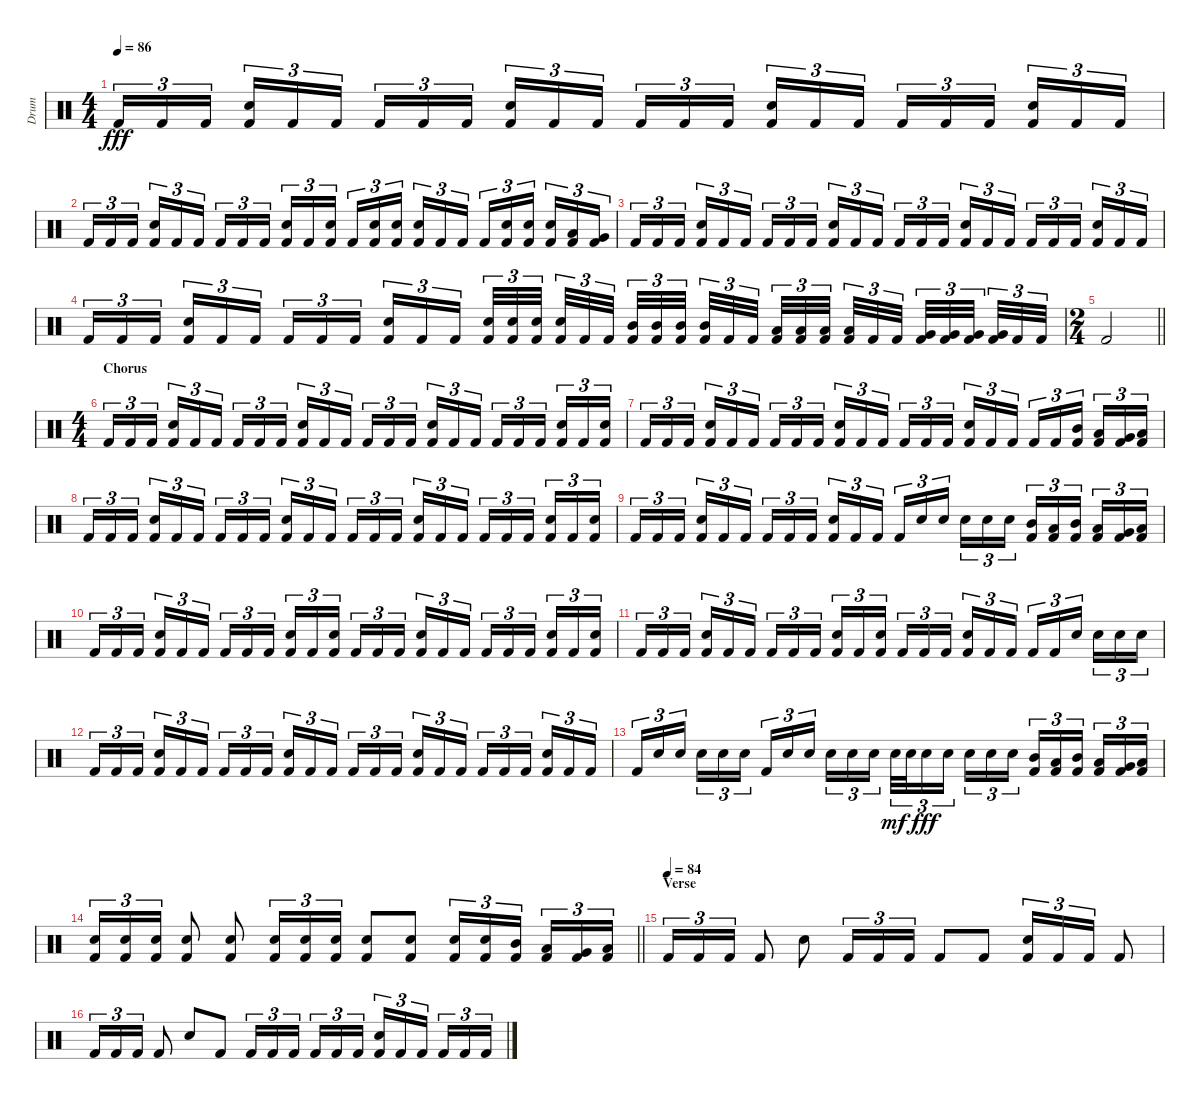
\track ("Drum" "Drum") {instrument percussion}
\staff {score}
\articulation defaults
\ts (4 4)
\tempo 86
\clef neutral
\ks c "Kick (hit) 2".16{tu (3 2) dy fff} "Kick (hit) 2".16{tu (3 2)} "Kick (hit) 2".16{tu (3 2) beam splitsecondary}
("Snare (hit) 2" "Kick (hit) 2").16{tu (3 2)} "Kick (hit) 2".16{tu (3 2)} "Kick (hit) 2".16{tu (3 2)} "Kick (hit) 2".16{tu (3 2)} "Kick (hit) 2".16{tu (3 2)} "Kick (hit) 2".16{tu (3 2) beam splitsecondary} ("Snare (hit) 2" "Kick (hit) 2").16{tu (3 2)} "Kick (hit) 2".16{tu (3 2)} "Kick (hit) 2".16{tu (3 2)} "Kick (hit) 2".16{tu (3 2)} "Kick (hit) 2".16{tu (3 2)} "Kick (hit) 2".16{tu (3 2) beam splitsecondary} ("Snare (hit) 2" "Kick (hit) 2").16{tu (3 2)} "Kick (hit) 2".16{tu (3 2)} "Kick (hit) 2".16{tu (3 2)} "Kick (hit) 2".16{tu (3 2)} "Kick (hit) 2".16{tu (3 2)} "Kick (hit) 2".16{tu (3 2) beam splitsecondary} ("Snare (hit) 2" "Kick (hit) 2").16{tu (3 2)} "Kick (hit) 2".16{tu (3 2)} "Kick (hit) 2".16{tu (3 2)} |
"Kick (hit) 2".16{tu (3 2)} "Kick (hit) 2".16{tu (3 2)} "Kick (hit) 2".16{tu (3 2) beam splitsecondary} ("Snare (hit) 2" "Kick (hit) 2").16{tu (3 2)} "Kick (hit) 2".16{tu (3 2)} "Kick (hit) 2".16{tu (3 2)} "Kick (hit) 2".16{tu (3 2)} "Kick (hit) 2".16{tu (3 2)} "Kick (hit) 2".16{tu (3 2) beam splitsecondary} ("Snare (hit) 2" "Kick (hit) 2").16{tu (3 2)} "Kick (hit) 2".16{tu (3 2)} ("Snare (hit) 2" "Kick (hit) 2").16{tu (3 2)} "Kick (hit) 2".16{tu (3 2)} ("Snare (hit) 2" "Kick (hit) 2").16{tu (3 2)} ("Snare (hit) 2" "Kick (hit) 2").16{tu (3 2) beam splitsecondary} ("Snare (hit) 2" "Kick (hit) 2").16{tu (3 2)} "Kick (hit) 2".16{tu (3 2)} "Kick (hit) 2".16{tu (3 2)} "Kick (hit) 2".16{tu (3 2)} ("Snare (hit) 2" "Kick (hit) 2").16{tu (3 2)} ("Snare (hit) 2" "Kick (hit) 2").16{tu (3 2) beam splitsecondary} ("Snare (hit) 2" "Kick (hit) 2").16{tu (3 2)} ("Low Tom (hit)" "Kick (hit) 2").16{tu (3 2)} ("Very Low Tom (hit)" "Kick (hit) 2").16{tu (3 2)} |
"Kick (hit) 2".16{tu (3 2)} "Kick (hit) 2".16{tu (3 2)} "Kick (hit) 2".16{tu (3 2) beam splitsecondary} ("Snare (hit) 2" "Kick (hit) 2").16{tu (3 2)} "Kick (hit) 2".16{tu (3 2)} "Kick (hit) 2".16{tu (3 2)} "Kick (hit) 2".16{tu (3 2)} "Kick (hit) 2".16{tu (3 2)} "Kick (hit) 2".16{tu (3 2) beam splitsecondary} ("Snare (hit) 2" "Kick (hit) 2").16{tu (3 2)} "Kick (hit) 2".16{tu (3 2)} "Kick (hit) 2".16{tu (3 2)} "Kick (hit) 2".16{tu (3 2)} "Kick (hit) 2".16{tu (3 2)} "Kick (hit) 2".16{tu (3 2) beam splitsecondary} ("Snare (hit) 2" "Kick (hit) 2").16{tu (3 2)} "Kick (hit) 2".16{tu (3 2)} "Kick (hit) 2".16{tu (3 2)} "Kick (hit) 2".16{tu (3 2)} "Kick (hit) 2".16{tu (3 2)} "Kick (hit) 2".16{tu (3 2) beam splitsecondary} ("Snare (hit) 2" "Kick (hit) 2").16{tu (3 2)} "Kick (hit) 2".16{tu (3 2)} "Kick (hit) 2".16{tu (3 2)} |
"Kick (hit) 2".16{tu (3 2)} "Kick (hit) 2".16{tu (3 2)} "Kick (hit) 2".16{tu (3 2) beam splitsecondary} ("Snare (hit) 2" "Kick (hit) 2").16{tu (3 2)} "Kick (hit) 2".16{tu (3 2)} "Kick (hit) 2".16{tu (3 2)} "Kick (hit) 2".16{tu (3 2)} "Kick (hit) 2".16{tu (3 2)} "Kick (hit) 2".16{tu (3 2) beam splitsecondary} ("Snare (hit) 2" "Kick (hit) 2").16{tu (3 2)} "Kick (hit) 2".16{tu (3 2)} "Kick (hit) 2".16{tu (3 2)} ("Snare (hit) 2" "Kick (hit) 2").32{tu (3 2)} ("Snare (hit) 2" "Kick (hit) 2").32{tu (3 2)} ("Snare (hit) 2" "Kick (hit) 2").32{tu (3 2) beam splitsecondary} ("Snare (hit) 2" "Kick (hit) 2").32{tu (3 2)} "Kick (hit) 2".32{tu (3 2)} "Kick (hit) 2".32{tu (3 2) beam splitsecondary} ("Mid Tom (hit)" "Kick (hit) 2").32{tu (3 2)} ("Mid Tom (hit)" "Kick (hit) 2").32{tu (3 2)} ("Mid Tom (hit)" "Kick (hit) 2").32{tu (3 2) beam splitsecondary} ("Mid Tom (hit)" "Kick (hit) 2").32{tu (3 2)} "Kick (hit) 2".32{tu (3 2)} "Kick (hit) 2".32{tu (3 2)} ("Low Tom (hit)" "Kick (hit) 2").32{tu (3 2)} ("Low Tom (hit)" "Kick (hit) 2").32{tu (3 2)} ("Low Tom (hit)" "Kick (hit) 2").32{tu (3 2) beam splitsecondary} ("Low Tom (hit)" "Kick (hit) 2").32{tu (3 2)} "Kick (hit) 2".32{tu (3 2)} "Kick (hit) 2".32{tu (3 2) beam splitsecondary} ("Very Low Tom (hit)" "Kick (hit) 2").32{tu (3 2)} ("Very Low Tom (hit)" "Kick (hit) 2").32{tu (3 2)} ("Very Low Tom (hit)" "Kick (hit) 2").32{tu (3 2) beam splitsecondary} ("Very Low Tom (hit)" "Kick (hit) 2").32{tu (3 2)} "Kick (hit) 2".32{tu (3 2)} "Kick (hit) 2".32{tu (3 2)} |
\ts (2 4)
\barLineRight lightlight "Kick (hit) 2".2
|
\ts (4 4)
\section ("" "Chorus")
"Kick (hit) 2".16{tu (3 2)} "Kick (hit) 2".16{tu (3 2)} "Kick (hit) 2".16{tu (3 2) beam splitsecondary} ("Snare (hit) 2" "Kick (hit) 2").16{tu (3 2)} "Kick (hit) 2".16{tu (3 2)} "Kick (hit) 2".16{tu (3 2)} "Kick (hit) 2".16{tu (3 2)} "Kick (hit) 2".16{tu (3 2)} "Kick (hit) 2".16{tu (3 2) beam splitsecondary} ("Snare (hit) 2" "Kick (hit) 2").16{tu (3 2)} "Kick (hit) 2".16{tu (3 2)} "Kick (hit) 2".16{tu (3 2)} "Kick (hit) 2".16{tu (3 2)} "Kick (hit) 2".16{tu (3 2)} "Kick (hit) 2".16{tu (3 2) beam splitsecondary} ("Snare (hit) 2" "Kick (hit) 2").16{tu (3 2)} "Kick (hit) 2".16{tu (3 2)} "Kick (hit) 2".16{tu (3 2)} "Kick (hit) 2".16{tu (3 2)} "Kick (hit) 2".16{tu (3 2)} "Kick (hit) 2".16{tu (3 2) beam splitsecondary} ("Snare (hit) 2" "Kick (hit) 2").16{tu (3 2)} "Kick (hit) 2".16{tu (3 2)} ("Snare (hit) 2" "Kick (hit) 2").16{tu (3 2)} |
"Kick (hit) 2".16{tu (3 2)} "Kick (hit) 2".16{tu (3 2)} "Kick (hit) 2".16{tu (3 2) beam splitsecondary} ("Snare (hit) 2" "Kick (hit) 2").16{tu (3 2)} "Kick (hit) 2".16{tu (3 2)} "Kick (hit) 2".16{tu (3 2)} "Kick (hit) 2".16{tu (3 2)} "Kick (hit) 2".16{tu (3 2)} "Kick (hit) 2".16{tu (3 2) beam splitsecondary} ("Snare (hit) 2" "Kick (hit) 2").16{tu (3 2)} "Kick (hit) 2".16{tu (3 2)} "Kick (hit) 2".16{tu (3 2)} "Kick (hit) 2".16{tu (3 2)} "Kick (hit) 2".16{tu (3 2)} "Kick (hit) 2".16{tu (3 2) beam splitsecondary} ("Snare (hit) 2" "Kick (hit) 2").16{tu (3 2)} "Kick (hit) 2".16{tu (3 2)} "Kick (hit) 2".16{tu (3 2)} "Kick (hit) 2".16{tu (3 2)} "Kick (hit) 2".16{tu (3 2)} ("Mid Tom (hit)" "Kick (hit) 2").16{tu (3 2) beam splitsecondary} ("Low Tom (hit)" "Kick (hit) 2").16{tu (3 2)} ("Very Low Tom (hit)" "Kick (hit) 2").16{tu (3 2)} ("Low Floor Tom (hit)" "Kick (hit) 2").16{tu (3 2)} |
"Kick (hit) 2".16{tu (3 2)} "Kick (hit) 2".16{tu (3 2)} "Kick (hit) 2".16{tu (3 2) beam splitsecondary} ("Snare (hit) 2" "Kick (hit) 2").16{tu (3 2)} "Kick (hit) 2".16{tu (3 2)} "Kick (hit) 2".16{tu (3 2)} "Kick (hit) 2".16{tu (3 2)} "Kick (hit) 2".16{tu (3 2)} "Kick (hit) 2".16{tu (3 2) beam splitsecondary} ("Snare (hit) 2" "Kick (hit) 2").16{tu (3 2)} "Kick (hit) 2".16{tu (3 2)} "Kick (hit) 2".16{tu (3 2)} "Kick (hit) 2".16{tu (3 2)} "Kick (hit) 2".16{tu (3 2)} "Kick (hit) 2".16{tu (3 2) beam splitsecondary} ("Snare (hit) 2" "Kick (hit) 2").16{tu (3 2)} "Kick (hit) 2".16{tu (3 2)} "Kick (hit) 2".16{tu (3 2)} "Kick (hit) 2".16{tu (3 2)} "Kick (hit) 2".16{tu (3 2)} "Kick (hit) 2".16{tu (3 2) beam splitsecondary} ("Snare (hit) 2" "Kick (hit) 2").16{tu (3 2)} "Kick (hit) 2".16{tu (3 2)} ("Snare (hit) 2" "Kick (hit) 2").16{tu (3 2)} |
"Kick (hit) 2".16{tu (3 2)} "Kick (hit) 2".16{tu (3 2)} "Kick (hit) 2".16{tu (3 2) beam splitsecondary} ("Snare (hit) 2" "Kick (hit) 2").16{tu (3 2)} "Kick (hit) 2".16{tu (3 2)} "Kick (hit) 2".16{tu (3 2)} "Kick (hit) 2".16{tu (3 2)} "Kick (hit) 2".16{tu (3 2)} "Kick (hit) 2".16{tu (3 2) beam splitsecondary} ("Snare (hit) 2" "Kick (hit) 2").16{tu (3 2)} "Kick (hit) 2".16{tu (3 2)} "Kick (hit) 2".16{tu (3 2)} "Kick (hit) 2".16{tu (3 2)} "Snare (hit) 2".16{tu (3 2)} "Snare (hit) 2".16{tu (3 2) beam splitsecondary} "Snare (hit) 2".16{tu (3 2)} "Snare (hit) 2".16{tu (3 2)} "Snare (hit) 2".16{tu (3 2)} ("Mid Tom (hit)" "Kick (hit) 2").16{tu (3 2)} ("Low Tom (hit)" "Kick (hit) 2").16{tu (3 2)} ("Mid Tom (hit)" "Kick (hit) 2").16{tu (3 2) beam splitsecondary} ("Low Tom (hit)" "Kick (hit) 2").16{tu (3 2)} ("Very Low Tom (hit)" "Kick (hit) 2").16{tu (3 2)} ("Low Floor Tom (hit)" "Kick (hit) 2").16{tu (3 2)} |
"Kick (hit) 2".16{tu (3 2)} "Kick (hit) 2".16{tu (3 2)} "Kick (hit) 2".16{tu (3 2) beam splitsecondary} ("Snare (hit) 2" "Kick (hit) 2").16{tu (3 2)} "Kick (hit) 2".16{tu (3 2)} "Kick (hit) 2".16{tu (3 2)} "Kick (hit) 2".16{tu (3 2)} "Kick (hit) 2".16{tu (3 2)} "Kick (hit) 2".16{tu (3 2) beam splitsecondary} ("Snare (hit) 2" "Kick (hit) 2").16{tu (3 2)} "Kick (hit) 2".16{tu (3 2)} ("Snare (hit) 2" "Kick (hit) 2").16{tu (3 2)} "Kick (hit) 2".16{tu (3 2)} "Kick (hit) 2".16{tu (3 2)} "Kick (hit) 2".16{tu (3 2) beam splitsecondary} ("Snare (hit) 2" "Kick (hit) 2").16{tu (3 2)} "Kick (hit) 2".16{tu (3 2)} "Kick (hit) 2".16{tu (3 2)} "Kick (hit) 2".16{tu (3 2)} "Kick (hit) 2".16{tu (3 2)} "Kick (hit) 2".16{tu (3 2) beam splitsecondary} ("Snare (hit) 2" "Kick (hit) 2").16{tu (3 2)} "Kick (hit) 2".16{tu (3 2)} ("Snare (hit) 2" "Kick (hit) 2").16{tu (3 2)} |
"Kick (hit) 2".16{tu (3 2)} "Kick (hit) 2".16{tu (3 2)} "Kick (hit) 2".16{tu (3 2) beam splitsecondary} ("Snare (hit) 2" "Kick (hit) 2").16{tu (3 2)} "Kick (hit) 2".16{tu (3 2)} "Kick (hit) 2".16{tu (3 2)} "Kick (hit) 2".16{tu (3 2)} "Kick (hit) 2".16{tu (3 2)} "Kick (hit) 2".16{tu (3 2) beam splitsecondary} ("Snare (hit) 2" "Kick (hit) 2").16{tu (3 2)} "Kick (hit) 2".16{tu (3 2)} ("Snare (hit) 2" "Kick (hit) 2").16{tu (3 2)} "Kick (hit) 2".16{tu (3 2)} "Kick (hit) 2".16{tu (3 2)} "Kick (hit) 2".16{tu (3 2) beam splitsecondary} ("Snare (hit) 2" "Kick (hit) 2").16{tu (3 2)} "Kick (hit) 2".16{tu (3 2)} "Kick (hit) 2".16{tu (3 2)} "Kick (hit) 2".16{tu (3 2)} "Kick (hit) 2".16{tu (3 2)} "Snare (hit) 2".16{tu (3 2) beam splitsecondary} "Snare (hit) 2".16{tu (3 2)} "Snare (hit) 2".16{tu (3 2)} "Snare (hit) 2".16{tu (3 2)} |
"Kick (hit) 2".16{tu (3 2)} "Kick (hit) 2".16{tu (3 2)} "Kick (hit) 2".16{tu (3 2) beam splitsecondary} ("Snare (hit) 2" "Kick (hit) 2").16{tu (3 2)} "Kick (hit) 2".16{tu (3 2)} "Kick (hit) 2".16{tu (3 2)} "Kick (hit) 2".16{tu (3 2)} "Kick (hit) 2".16{tu (3 2)} "Kick (hit) 2".16{tu (3 2) beam splitsecondary} ("Snare (hit) 2" "Kick (hit) 2").16{tu (3 2)} "Kick (hit) 2".16{tu (3 2)} "Kick (hit) 2".16{tu (3 2)} "Kick (hit) 2".16{tu (3 2)} "Kick (hit) 2".16{tu (3 2)} "Kick (hit) 2".16{tu (3 2) beam splitsecondary} ("Snare (hit) 2" "Kick (hit) 2").16{tu (3 2)} "Kick (hit) 2".16{tu (3 2)} "Kick (hit) 2".16{tu (3 2)} "Kick (hit) 2".16{tu (3 2)} "Kick (hit) 2".16{tu (3 2)} "Kick (hit) 2".16{tu (3 2) beam splitsecondary} ("Snare (hit) 2" "Kick (hit) 2").16{tu (3 2)} "Kick (hit) 2".16{tu (3 2)} "Kick (hit) 2".16{tu (3 2)} |
"Kick (hit) 2".16{tu (3 2)} "Snare (hit) 2".16{tu (3 2)} "Snare (hit) 2".16{tu (3 2) beam splitsecondary} "Snare (hit) 2".16{tu (3 2)} "Snare (hit) 2".16{tu (3 2)} "Snare (hit) 2".16{tu (3 2)} "Kick (hit) 2".16{tu (3 2)} "Snare (hit) 2".16{tu (3 2)} "Snare (hit) 2".16{tu (3 2) beam splitsecondary} "Snare (hit) 2".16{tu (3 2)} "Snare (hit) 2".16{tu (3 2)} "Snare (hit) 2".16{tu (3 2)} "Snare (hit) 2".32{tu (3 2) dy mf} "Snare (hit) 2".32{tu (3 2)} "Snare (hit) 2".16{tu (3 2) dy fff} "Snare (hit) 2".16{tu (3 2) beam splitsecondary} "Snare (hit) 2".16{tu (3 2)} "Snare (hit) 2".16{tu (3 2)} "Snare (hit) 2".16{tu (3 2)} ("Mid Tom (hit)" "Kick (hit) 2").16{tu (3 2)} ("Low Tom (hit)" "Kick (hit) 2").16{tu (3 2)} ("Mid Tom (hit)" "Kick (hit) 2").16{tu (3 2) beam splitsecondary} ("Low Tom (hit)" "Kick (hit) 2").16{tu (3 2)} ("Very Low Tom (hit)" "Kick (hit) 2").16{tu (3 2)} ("Low Floor Tom (hit)" "Kick (hit) 2").16{tu (3 2)} |
\barLineRight lightlight
("Snare (hit) 2" "Kick (hit) 2").16{tu (3 2)} ("Snare (hit) 2" "Kick (hit) 2").16{tu (3 2)} ("Snare (hit) 2" "Kick (hit) 2").16{tu (3 2)} ("Snare (hit) 2" "Kick (hit) 2").8 ("Snare (hit) 2" "Kick (hit) 2").8 ("Snare (hit) 2" "Kick (hit) 2").16{tu (3 2)} ("Snare (hit) 2" "Kick (hit) 2").16{tu (3 2)} ("Snare (hit) 2" "Kick (hit) 2").16{tu (3 2)} ("Snare (hit) 2" "Kick (hit) 2").8 ("Snare (hit) 2" "Kick (hit) 2").8 ("Snare (hit) 2" "Kick (hit) 2").16{tu (3 2)} ("Snare (hit) 2" "Kick (hit) 2").16{tu (3 2)} ("Mid Tom (hit)" "Kick (hit) 2").16{tu (3 2) beam splitsecondary} ("Low Tom (hit)" "Kick (hit) 2").16{tu (3 2)} ("Very Low Tom (hit)" "Kick (hit) 2").16{tu (3 2)} ("Low Floor Tom (hit)" "Kick (hit) 2").16{tu (3 2)} |
\section ("" "Verse")
\tempo (84)
"Kick (hit) 2".16{tu (3 2)} "Kick (hit) 2".16{tu (3 2)} "Kick (hit) 2".16{tu (3 2)} "Kick (hit) 2".8 "Snare (hit) 2".8 "Kick (hit) 2".16{tu (3 2)} "Kick (hit) 2".16{tu (3 2)} "Kick (hit) 2".16{tu (3 2)} "Kick (hit) 2".8 "Kick (hit) 2".8 ("Snare (hit) 2" "Kick (hit) 2").16{tu (3 2)} "Kick (hit) 2".16{tu (3 2)} "Kick (hit) 2".16{tu (3 2)} "Kick (hit) 2".8 |
"Kick (hit) 2".16{tu (3 2)} "Kick (hit) 2".16{tu (3 2)} "Kick (hit) 2".16{tu (3 2)} "Kick (hit) 2".8 "Snare (hit) 2".8 "Kick (hit) 2".8 "Kick (hit) 2".16{tu (3 2)} "Kick (hit) 2".16{tu (3 2)} "Kick (hit) 2".16{tu (3 2) beam splitsecondary} "Kick (hit) 2".16{tu (3 2)} "Kick (hit) 2".16{tu (3 2)} "Kick (hit) 2".16{tu (3 2)} ("Snare (hit) 2" "Kick (hit) 2").16{tu (3 2)} "Kick (hit) 2".16{tu (3 2)} "Kick (hit) 2".16{tu (3 2) beam splitsecondary} "Kick (hit) 2".16{tu (3 2)} "Kick (hit) 2".16{tu (3 2)} "Kick (hit) 2".16{tu (3 2)}
